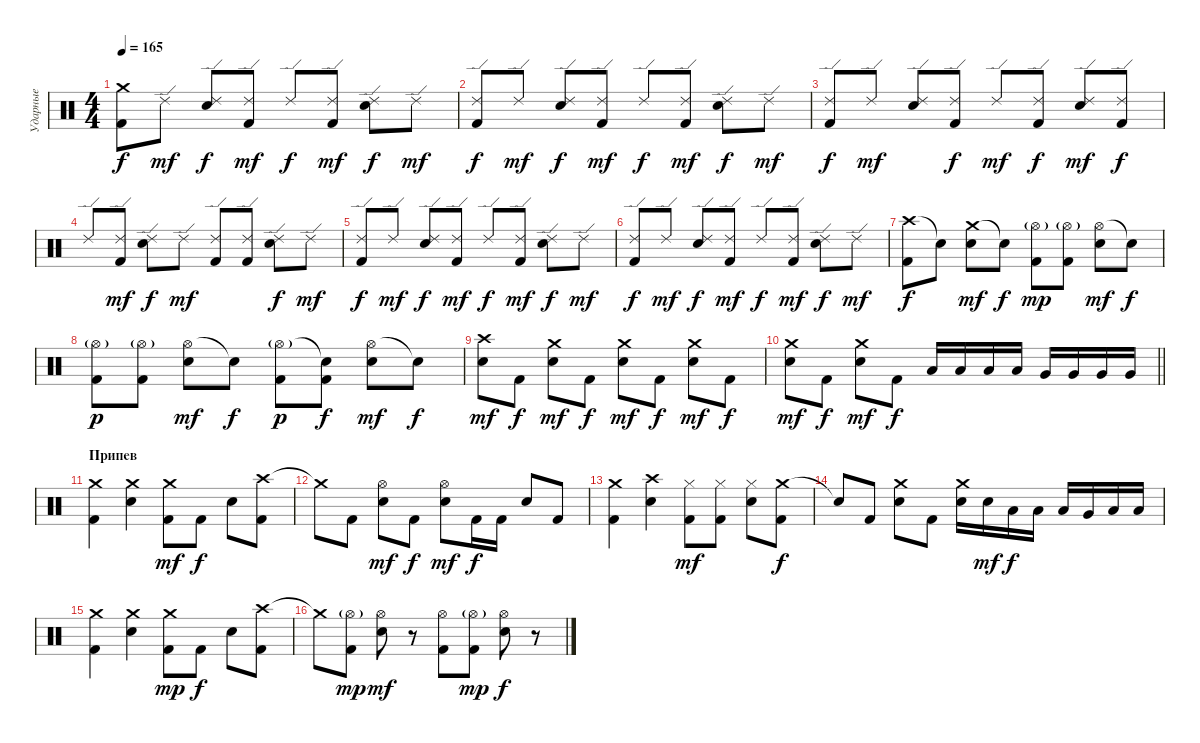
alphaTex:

\track ("Ударные" "Ударные") {instrument percussion}
\staff {score}
\articulation defaults
\ts (4 4)
\tempo 165
\clef neutral
\ks c
("Crash medium (hit)" "Kick (hit) 2").8{dy f} "Ride (edge) 2".8{dy mf} ("Ride (edge) 2" "Snare (hit) 2").8{dy f} ("Ride (edge) 2" "Kick (hit) 2").8{dy mf} "Ride (edge) 2".8{dy f} ("Ride (edge) 2" "Kick (hit) 2").8{dy mf} ("Ride (edge) 2" "Snare (hit) 2").8{dy f} "Ride (edge) 2".8{dy mf} |
("Ride (edge) 2" "Kick (hit) 2").8{dy f} "Ride (edge) 2".8{dy mf} ("Ride (edge) 2" "Snare (hit) 2").8{dy f} ("Ride (edge) 2" "Kick (hit) 2").8{dy mf} "Ride (edge) 2".8{dy f} ("Ride (edge) 2" "Kick (hit) 2").8{dy mf} ("Ride (edge) 2" "Snare (hit) 2").8{dy f} "Ride (edge) 2".8{dy mf} |
("Ride (edge) 2" "Kick (hit) 2").8{dy f} "Ride (edge) 2".8{dy mf} ("Ride (edge) 2" "Snare (hit) 2").8 ("Ride (edge) 2" "Kick (hit) 2").8{dy f} "Ride (edge) 2".8{dy mf} ("Ride (edge) 2" "Kick (hit) 2").8{dy f} ("Ride (edge) 2" "Snare (hit) 2").8{dy mf} ("Ride (edge) 2" "Kick (hit) 2").8{dy f} |
"Ride (edge) 2".8 ("Ride (edge) 2" "Kick (hit) 2").8{dy mf} ("Ride (edge) 2" "Snare (hit) 2").8{dy f} "Ride (edge) 2".8{dy mf} ("Ride (edge) 2" "Kick (hit) 2").8 ("Ride (edge) 2" "Kick (hit) 2").8 ("Ride (edge) 2" "Snare (hit) 2").8{dy f} "Ride (edge) 2".8{dy mf} |
("Ride (edge) 2" "Kick (hit) 2").8{dy f} "Ride (edge) 2".8{dy mf} ("Ride (edge) 2" "Snare (hit) 2").8{dy f} ("Ride (edge) 2" "Kick (hit) 2").8{dy mf} "Ride (edge) 2".8{dy f} ("Ride (edge) 2" "Kick (hit) 2").8{dy mf} ("Ride (edge) 2" "Snare (hit) 2").8{dy f} "Ride (edge) 2".8{dy mf} |
("Ride (edge) 2" "Kick (hit) 2").8{dy f} "Ride (edge) 2".8{dy mf} ("Ride (edge) 2" "Snare (hit) 2").8{dy f} ("Ride (edge) 2" "Kick (hit) 2").8{dy mf} "Ride (edge) 2".8{dy f} ("Ride (edge) 2" "Kick (hit) 2").8{dy mf} ("Ride (edge) 2" "Snare (hit) 2").8{dy f} "Ride (edge) 2".8{dy mf} |
("Crash high (hit)" "Kick (hit) 2").8{dy f} "Snare (hit)"{t}.8 ("Crash medium (hit)" "Snare (hit) 2").8{dy mf} "Snare (hit)"{t}.8{dy f} ("Hi-Hat (open)"{g} "Kick (hit) 2").8{dy mp} ("Hi-Hat (open)"{g} "Kick (hit) 2").8 ("Hi-Hat (open)" "Snare (hit) 2").8{dy mf} "Snare (hit)"{t}.8{dy f} |
("Hi-Hat (open)"{g} "Kick (hit) 2").8{dy p} ("Hi-Hat (open)"{g} "Kick (hit) 2").8 ("Hi-Hat (open)" "Snare (hit) 2").8{dy mf} "Snare (hit)"{t}.8{dy f} ("Hi-Hat (open)"{g} "Kick (hit) 2").8{dy p} ("Snare (hit)"{t} "Kick (hit) 2").8{dy f} ("Hi-Hat (open)" "Snare (hit) 2").8{dy mf} "Snare (hit)"{t}.8{dy f} |
("Crash high (hit)" "Snare (hit) 2").8{dy mf} "Kick (hit) 2".8{dy f} ("Crash medium (hit)" "Snare (hit) 2").8{dy mf} "Kick (hit) 2".8{dy f} ("Crash medium (hit)" "Snare (hit) 2").8{dy mf} "Kick (hit) 2".8{dy f} ("Crash medium (hit)" "Snare (hit) 2").8{dy mf} "Kick (hit) 2".8{dy f} |
\barLineRight lightlight
("Crash medium (hit)" "Snare (hit) 2").8{dy mf} "Kick (hit) 2".8{dy f} ("Crash medium (hit)" "Snare (hit) 2").8{dy mf} "Kick (hit) 2".8{dy f} "Low Tom (hit)".16 "Low Tom (hit)".16 "Low Tom (hit)".16 "Low Tom (hit)".16 "Very Low Tom (hit)".16 "Very Low Tom (hit)".16 "Very Low Tom (hit)".16 "Very Low Tom (hit)".16 |
\section ("" "Припев")
("Crash medium (hit)" "Kick (hit) 2").4 ("Crash medium (hit)" "Snare (hit) 2").4 ("Crash medium (hit)" "Kick (hit) 2").8{dy mf} "Kick (hit) 2".8{dy f} "Snare (hit) 2".8 ("Crash high (hit)" "Kick (hit) 2").8 |
"Crash medium (hit)"{t}.8 "Kick (hit) 2".8 ("Hi-Hat (open)" "Snare (hit) 2").8{dy mf} "Kick (hit) 2".8{dy f} ("Hi-Hat (open)" "Snare (hit) 2").8{dy mf} "Kick (hit) 2".16{dy f} "Kick (hit) 2".16 "Snare (hit) 2".8 "Kick (hit) 2".8 |
("Crash medium (hit)" "Kick (hit) 2").4 ("Crash high (hit)" "Snare (hit) 2").4 ("Hi-Hat (closed)" "Kick (hit) 2").8{dy mf} ("Hi-Hat (closed)" "Kick (hit) 2").8 ("Hi-Hat (closed)" "Snare (hit) 2").8 ("Crash medium (hit)" "Kick (hit) 2").8{dy f} |
"Snare (hit)"{t}.8 "Kick (hit) 2".8 ("Crash medium (hit)" "Snare (hit) 2").8 "Kick (hit) 2".8 ("Crash medium (hit)" "Snare (hit) 2").16 "Snare (hit) 2".16{dy mf} "Low Tom (hit)".16{dy f} "Low Tom (hit)".16 "Low Tom (hit)".16 "Very Low Tom (hit)".16 "Low Floor Tom (hit)".16 "Low Floor Tom (hit)".16 |
("Crash medium (hit)" "Kick (hit) 2").4 ("Crash medium (hit)" "Snare (hit) 2").4 ("Crash medium (hit)" "Kick (hit) 2").8{dy mp} "Kick (hit) 2".8{dy f} "Snare (hit) 2".8 ("Crash high (hit)" "Kick (hit) 2").8 |
"Crash medium (hit)"{t}.8 ("Hi-Hat (open)"{g} "Kick (hit) 2").8{dy mp} ("Hi-Hat (open)" "Snare (hit) 2").8{dy mf} r.8 ("Hi-Hat (open)" "Kick (hit) 2").8 ("Hi-Hat (open)"{g} "Kick (hit) 2").8{dy mp} ("Hi-Hat (open)" "Snare (hit) 2").8{dy f} r.8
